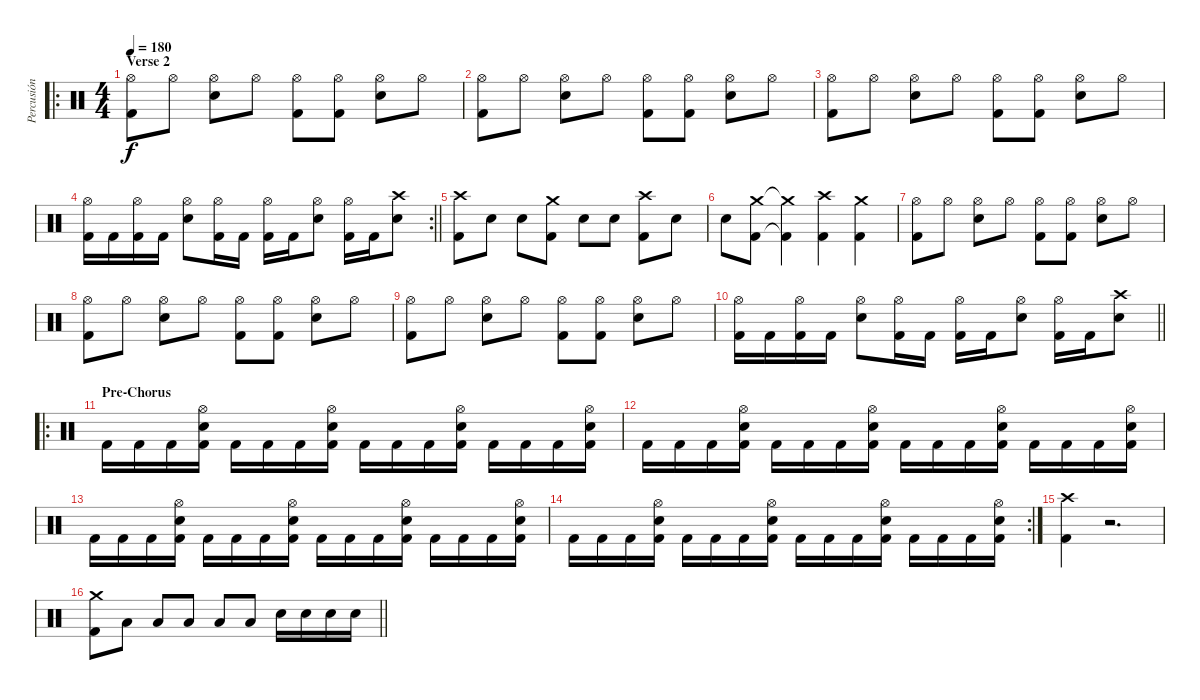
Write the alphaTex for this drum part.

\track ("Percusión" "Percusión") {instrument percussion}
\staff {score}
\articulation defaults
\ro
\ts (4 4)
\section ("" "Verse 2")
\tempo 180
\clef neutral
\ks c
("Hi-Hat (open)" "Kick (hit) 2").8{dy f} "Hi-Hat (open)".8 ("Hi-Hat (open)" "Snare (hit) 2").8 "Hi-Hat (open)".8 ("Hi-Hat (open)" "Kick (hit) 2").8 ("Hi-Hat (open)" "Kick (hit) 2").8 ("Hi-Hat (open)" "Snare (hit) 2").8 "Hi-Hat (open)".8 |
("Hi-Hat (open)" "Kick (hit) 2").8 "Hi-Hat (open)".8 ("Hi-Hat (open)" "Snare (hit) 2").8 "Hi-Hat (open)".8 ("Hi-Hat (open)" "Kick (hit) 2").8 ("Hi-Hat (open)" "Kick (hit) 2").8 ("Hi-Hat (open)" "Snare (hit) 2").8 "Hi-Hat (open)".8 |
("Hi-Hat (open)" "Kick (hit) 2").8 "Hi-Hat (open)".8 ("Hi-Hat (open)" "Snare (hit) 2").8 "Hi-Hat (open)".8 ("Hi-Hat (open)" "Kick (hit) 2").8 ("Hi-Hat (open)" "Kick (hit) 2").8 ("Hi-Hat (open)" "Snare (hit) 2").8 "Hi-Hat (open)".8 |
\rc 2
\barLineRight lightlight
("Hi-Hat (open)" "Kick (hit) 2").16 "Kick (hit) 2".16 ("Hi-Hat (open)" "Kick (hit) 2").16 "Kick (hit) 2".16 ("Hi-Hat (open)" "Snare (hit) 2").8 ("Hi-Hat (open)" "Kick (hit) 2").16 "Kick (hit) 2".16 ("Hi-Hat (open)" "Kick (hit) 2").16 "Kick (hit) 2".16 ("Hi-Hat (open)" "Snare (hit) 2").8 ("Hi-Hat (open)" "Kick (hit) 2").16 "Kick (hit) 2".16 ("Crash high (hit)" "Snare (hit) 2").8 |
("Crash high (hit)" "Kick (hit) 2").8 "Snare (hit) 2".8 "Snare (hit) 2".8 ("Crash medium (hit)" "Kick (hit) 2").8 "Snare (hit) 2".8 "Snare (hit) 2".8 ("Crash high (hit)" "Kick (hit) 2").8 "Snare (hit) 2".8 |
"Snare (hit) 2".8 ("Crash medium (hit)" "Kick (hit) 2").8 ("Crash medium (hit)"{t} "Kick (hit) 2"{t}).4 ("Crash high (hit)" "Kick (hit) 2").4 ("Crash medium (hit)" "Kick (hit) 2").4 |
("Hi-Hat (open)" "Kick (hit) 2").8 "Hi-Hat (open)".8 ("Hi-Hat (open)" "Snare (hit) 2").8 "Hi-Hat (open)".8 ("Hi-Hat (open)" "Kick (hit) 2").8 ("Hi-Hat (open)" "Kick (hit) 2").8 ("Hi-Hat (open)" "Snare (hit) 2").8 "Hi-Hat (open)".8 |
("Hi-Hat (open)" "Kick (hit) 2").8 "Hi-Hat (open)".8 ("Hi-Hat (open)" "Snare (hit) 2").8 "Hi-Hat (open)".8 ("Hi-Hat (open)" "Kick (hit) 2").8 ("Hi-Hat (open)" "Kick (hit) 2").8 ("Hi-Hat (open)" "Snare (hit) 2").8 "Hi-Hat (open)".8 |
("Hi-Hat (open)" "Kick (hit) 2").8 "Hi-Hat (open)".8 ("Hi-Hat (open)" "Snare (hit) 2").8 "Hi-Hat (open)".8 ("Hi-Hat (open)" "Kick (hit) 2").8 ("Hi-Hat (open)" "Kick (hit) 2").8 ("Hi-Hat (open)" "Snare (hit) 2").8 "Hi-Hat (open)".8 |
\barLineRight lightlight
("Hi-Hat (open)" "Kick (hit) 2").16 "Kick (hit) 2".16 ("Hi-Hat (open)" "Kick (hit) 2").16 "Kick (hit) 2".16 ("Hi-Hat (open)" "Snare (hit) 2").8 ("Hi-Hat (open)" "Kick (hit) 2").16 "Kick (hit) 2".16 ("Hi-Hat (open)" "Kick (hit) 2").16 "Kick (hit) 2".16 ("Hi-Hat (open)" "Snare (hit) 2").8 ("Hi-Hat (open)" "Kick (hit) 2").16 "Kick (hit) 2".16 ("Crash high (hit)" "Snare (hit) 2").8 |
\ro
\section ("" "Pre-Chorus")
"Kick (hit) 2".16 "Kick (hit) 2".16 "Kick (hit) 2".16 ("Hi-Hat (open)" "Snare (hit) 2" "Kick (hit) 2").16 "Kick (hit) 2".16 "Kick (hit) 2".16 "Kick (hit) 2".16 ("Hi-Hat (open)" "Snare (hit) 2" "Kick (hit) 2").16 "Kick (hit) 2".16 "Kick (hit) 2".16 "Kick (hit) 2".16 ("Hi-Hat (open)" "Snare (hit) 2" "Kick (hit) 2").16 "Kick (hit) 2".16 "Kick (hit) 2".16 "Kick (hit) 2".16 ("Hi-Hat (open)" "Snare (hit) 2" "Kick (hit) 2").16 |
"Kick (hit) 2".16 "Kick (hit) 2".16 "Kick (hit) 2".16 ("Hi-Hat (open)" "Snare (hit) 2" "Kick (hit) 2").16 "Kick (hit) 2".16 "Kick (hit) 2".16 "Kick (hit) 2".16 ("Hi-Hat (open)" "Snare (hit) 2" "Kick (hit) 2").16 "Kick (hit) 2".16 "Kick (hit) 2".16 "Kick (hit) 2".16 ("Hi-Hat (open)" "Snare (hit) 2" "Kick (hit) 2").16 "Kick (hit) 2".16 "Kick (hit) 2".16 "Kick (hit) 2".16 ("Hi-Hat (open)" "Snare (hit) 2" "Kick (hit) 2").16 |
"Kick (hit) 2".16 "Kick (hit) 2".16 "Kick (hit) 2".16 ("Hi-Hat (open)" "Snare (hit) 2" "Kick (hit) 2").16 "Kick (hit) 2".16 "Kick (hit) 2".16 "Kick (hit) 2".16 ("Hi-Hat (open)" "Snare (hit) 2" "Kick (hit) 2").16 "Kick (hit) 2".16 "Kick (hit) 2".16 "Kick (hit) 2".16 ("Hi-Hat (open)" "Snare (hit) 2" "Kick (hit) 2").16 "Kick (hit) 2".16 "Kick (hit) 2".16 "Kick (hit) 2".16 ("Hi-Hat (open)" "Snare (hit) 2" "Kick (hit) 2").16 |
\rc 2 "Kick (hit) 2".16 "Kick (hit) 2".16 "Kick (hit) 2".16
("Hi-Hat (open)" "Snare (hit) 2" "Kick (hit) 2").16 "Kick (hit) 2".16 "Kick (hit) 2".16 "Kick (hit) 2".16 ("Hi-Hat (open)" "Snare (hit) 2" "Kick (hit) 2").16 "Kick (hit) 2".16 "Kick (hit) 2".16 "Kick (hit) 2".16 ("Hi-Hat (open)" "Snare (hit) 2" "Kick (hit) 2").16 "Kick (hit) 2".16 "Kick (hit) 2".16 "Kick (hit) 2".16 ("Hi-Hat (open)" "Snare (hit) 2" "Kick (hit) 2").16 |
("Crash high (hit)" "Kick (hit) 2").4 r.2{d} |
\barLineRight lightlight
("Crash medium (hit)" "Kick (hit) 2").8 "Low Tom (hit)".8 "Low Tom (hit)".8 "Low Tom (hit)".8 "Low Tom (hit)".8 "Low Tom (hit)".8 "Snare (hit) 2".16 "Snare (hit) 2".16 "Snare (hit) 2".16 "Snare (hit) 2".16
